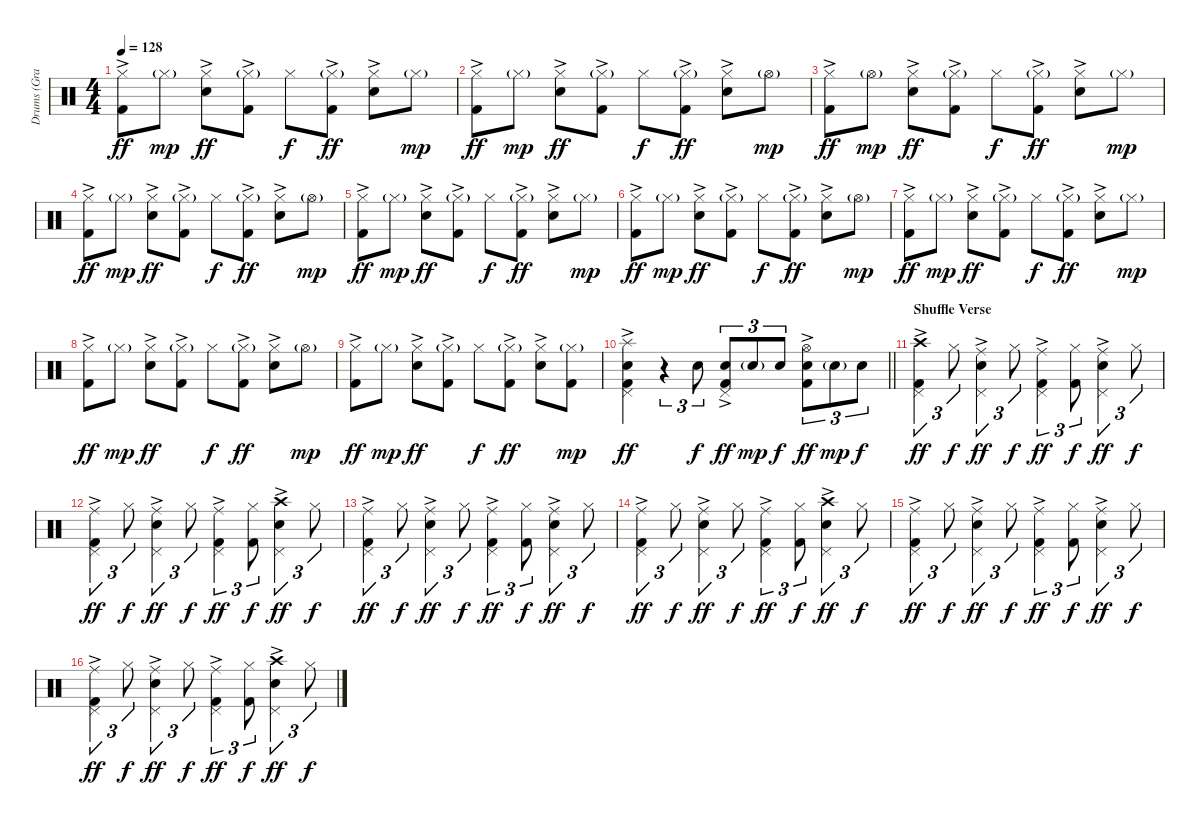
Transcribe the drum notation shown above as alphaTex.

\track ("Drums (Graham)" "Drums (Gra") {instrument percussion}
\staff {score}
\articulation defaults
\ts (4 4)
\tempo 128
\clef neutral
\ks c
("Hi-Hat (closed)" "Kick (hit) 2"{ac}).8{dy ff} "Hi-Hat (closed)"{g}.8{dy mp} ("Hi-Hat (closed)" "Snare (hit) 2"{ac}).8{dy ff} ("Hi-Hat (closed)"{g} "Kick (hit) 2"{ac}).8 "Hi-Hat (closed)".8{dy f} ("Hi-Hat (closed)"{g} "Kick (hit) 2"{ac}).8{dy ff} ("Hi-Hat (closed)" "Snare (hit) 2"{ac}).8 "Hi-Hat (closed)"{g}.8{dy mp} |
("Hi-Hat (closed)" "Kick (hit) 2"{ac}).8{dy ff} "Hi-Hat (closed)"{g}.8{dy mp} ("Hi-Hat (closed)" "Snare (hit) 2"{ac}).8{dy ff} ("Hi-Hat (closed)"{g} "Kick (hit) 2"{ac}).8 "Hi-Hat (closed)".8{dy f} ("Hi-Hat (closed)"{g} "Kick (hit) 2"{ac}).8{dy ff} ("Hi-Hat (closed)" "Snare (hit) 2"{ac}).8 "Hi-Hat (open)"{g}.8{dy mp} |
("Hi-Hat (closed)" "Kick (hit) 2"{ac}).8{dy ff} "Hi-Hat (open)"{g}.8{dy mp} ("Hi-Hat (closed)" "Snare (hit) 2"{ac}).8{dy ff} ("Hi-Hat (closed)"{g} "Kick (hit) 2"{ac}).8 "Hi-Hat (closed)".8{dy f} ("Hi-Hat (closed)"{g} "Kick (hit) 2"{ac}).8{dy ff} ("Hi-Hat (closed)" "Snare (hit) 2"{ac}).8 "Hi-Hat (closed)"{g}.8{dy mp} |
("Hi-Hat (closed)" "Kick (hit) 2"{ac}).8{dy ff} "Hi-Hat (closed)"{g}.8{dy mp} ("Hi-Hat (closed)" "Snare (hit) 2"{ac}).8{dy ff} ("Hi-Hat (closed)"{g} "Kick (hit) 2"{ac}).8 "Hi-Hat (closed)".8{dy f} ("Hi-Hat (closed)"{g} "Kick (hit) 2"{ac}).8{dy ff} ("Hi-Hat (closed)" "Snare (hit) 2"{ac}).8 "Hi-Hat (open)"{g}.8{dy mp} |
("Hi-Hat (closed)" "Kick (hit) 2"{ac}).8{dy ff} "Hi-Hat (closed)"{g}.8{dy mp} ("Hi-Hat (closed)" "Snare (hit) 2"{ac}).8{dy ff} ("Hi-Hat (closed)"{g} "Kick (hit) 2"{ac}).8 "Hi-Hat (closed)".8{dy f} ("Hi-Hat (closed)"{g} "Kick (hit) 2"{ac}).8{dy ff} ("Hi-Hat (closed)" "Snare (hit) 2"{ac}).8 "Hi-Hat (closed)"{g}.8{dy mp} |
("Hi-Hat (closed)" "Kick (hit) 2"{ac}).8{dy ff} "Hi-Hat (closed)"{g}.8{dy mp} ("Hi-Hat (closed)" "Snare (hit) 2"{ac}).8{dy ff} ("Hi-Hat (closed)"{g} "Kick (hit) 2"{ac}).8 "Hi-Hat (closed)".8{dy f} ("Hi-Hat (closed)"{g} "Kick (hit) 2"{ac}).8{dy ff} ("Hi-Hat (closed)" "Snare (hit) 2"{ac}).8 "Hi-Hat (open)"{g}.8{dy mp} |
("Hi-Hat (closed)" "Kick (hit) 2"{ac}).8{dy ff} "Hi-Hat (closed)"{g}.8{dy mp} ("Hi-Hat (closed)" "Snare (hit) 2"{ac}).8{dy ff} ("Hi-Hat (closed)"{g} "Kick (hit) 2"{ac}).8 "Hi-Hat (closed)".8{dy f} ("Hi-Hat (closed)"{g} "Kick (hit) 2"{ac}).8{dy ff} ("Hi-Hat (closed)" "Snare (hit) 2"{ac}).8 "Hi-Hat (closed)"{g}.8{dy mp} |
("Hi-Hat (closed)" "Kick (hit) 2"{ac}).8{dy ff} "Hi-Hat (closed)"{g}.8{dy mp} ("Hi-Hat (closed)" "Snare (hit) 2"{ac}).8{dy ff} ("Hi-Hat (closed)"{g} "Kick (hit) 2"{ac}).8 "Hi-Hat (closed)".8{dy f} ("Hi-Hat (closed)"{g} "Kick (hit) 2"{ac}).8{dy ff} ("Hi-Hat (closed)" "Snare (hit) 2"{ac}).8 "Hi-Hat (open)"{g}.8{dy mp} |
("Hi-Hat (closed)" "Kick (hit) 2"{ac}).8{dy ff} "Hi-Hat (closed)"{g}.8{dy mp} ("Hi-Hat (closed)" "Snare (hit) 2"{ac}).8{dy ff} ("Hi-Hat (closed)"{g} "Kick (hit) 2"{ac}).8 "Hi-Hat (closed)".8{dy f} ("Hi-Hat (closed)"{g} "Kick (hit) 2"{ac}).8{dy ff} ("Hi-Hat (closed)" "Snare (hit) 2"{ac}).8 ("Hi-Hat (closed)"{g} "Kick (hit) 2").8{dy mp} |
\barLineRight lightlight
("Pedal Hi-Hat (hit)" "Snare (hit) 2" "Splash (hit)" "Kick (hit) 2"{ac}).4{dy ff} r.4{tu (3 2)} "Snare (hit) 2".8{tu (3 2) dy f} ("Pedal Hi-Hat (hit)" "Snare (hit) 2"{ac} "Kick (hit) 2").8{tu (3 2) dy ff} "Snare (hit) 2"{g}.8{tu (3 2) dy mp} "Snare (hit) 2".8{tu (3 2) dy f} ("Hi-Hat (open)" "Snare (hit) 2"{ac} "Kick (hit) 2").8{tu (3 2) dy ff} "Snare (hit) 2"{g}.8{tu (3 2) dy mp} "Snare (hit) 2".8{tu (3 2) dy f} |
\section ("" "Shuffle Verse")
("Pedal Hi-Hat (hit)" "Crash high (hit)" "Kick (hit) 2"{ac}).4{tu (3 2) dy ff} "Hi-Hat (closed)".8{tu (3 2) dy f} ("Pedal Hi-Hat (hit)" "Ride (middle)" "Snare (hit) 2"{ac}).4{tu (3 2) dy ff} "Hi-Hat (closed)".8{tu (3 2) dy f} ("Pedal Hi-Hat (hit)" "Ride (middle)" "Kick (hit) 2"{ac}).4{tu (3 2) dy ff} ("Hi-Hat (closed)" "Kick (hit) 2").8{tu (3 2) dy f} ("Pedal Hi-Hat (hit)" "Ride (middle)" "Snare (hit) 2"{ac}).4{tu (3 2) dy ff} "Hi-Hat (closed)".8{tu (3 2) dy f} |
("Pedal Hi-Hat (hit)" "Ride (middle)" "Kick (hit) 2"{ac}).4{tu (3 2) dy ff} "Hi-Hat (closed)".8{tu (3 2) dy f} ("Pedal Hi-Hat (hit)" "Ride (middle)" "Snare (hit) 2"{ac}).4{tu (3 2) dy ff} "Hi-Hat (closed)".8{tu (3 2) dy f} ("Pedal Hi-Hat (hit)" "Ride (middle)" "Kick (hit) 2"{ac}).4{tu (3 2) dy ff} ("Hi-Hat (closed)" "Kick (hit) 2").8{tu (3 2) dy f} ("Pedal Hi-Hat (hit)" "Crash high (hit)" "Snare (hit) 2"{ac}).4{tu (3 2) dy ff} "Hi-Hat (closed)".8{tu (3 2) dy f} |
("Pedal Hi-Hat (hit)" "Ride (middle)" "Kick (hit) 2"{ac}).4{tu (3 2) dy ff} "Hi-Hat (closed)".8{tu (3 2) dy f} ("Pedal Hi-Hat (hit)" "Ride (middle)" "Snare (hit) 2"{ac}).4{tu (3 2) dy ff} "Hi-Hat (closed)".8{tu (3 2) dy f} ("Pedal Hi-Hat (hit)" "Ride (middle)" "Kick (hit) 2"{ac}).4{tu (3 2) dy ff} ("Hi-Hat (closed)" "Kick (hit) 2").8{tu (3 2) dy f} ("Pedal Hi-Hat (hit)" "Ride (middle)" "Snare (hit) 2"{ac}).4{tu (3 2) dy ff} "Hi-Hat (closed)".8{tu (3 2) dy f} |
("Pedal Hi-Hat (hit)" "Ride (middle)" "Kick (hit) 2"{ac}).4{tu (3 2) dy ff} "Hi-Hat (closed)".8{tu (3 2) dy f} ("Pedal Hi-Hat (hit)" "Ride (middle)" "Snare (hit) 2"{ac}).4{tu (3 2) dy ff} "Hi-Hat (closed)".8{tu (3 2) dy f} ("Pedal Hi-Hat (hit)" "Ride (middle)" "Kick (hit) 2"{ac}).4{tu (3 2) dy ff} ("Hi-Hat (closed)" "Kick (hit) 2").8{tu (3 2) dy f} ("Pedal Hi-Hat (hit)" "Crash high (hit)" "Snare (hit) 2"{ac}).4{tu (3 2) dy ff} "Hi-Hat (closed)".8{tu (3 2) dy f} |
("Pedal Hi-Hat (hit)" "Ride (middle)" "Kick (hit) 2"{ac}).4{tu (3 2) dy ff} "Hi-Hat (closed)".8{tu (3 2) dy f} ("Pedal Hi-Hat (hit)" "Ride (middle)" "Snare (hit) 2"{ac}).4{tu (3 2) dy ff} "Hi-Hat (closed)".8{tu (3 2) dy f} ("Pedal Hi-Hat (hit)" "Ride (middle)" "Kick (hit) 2"{ac}).4{tu (3 2) dy ff} ("Hi-Hat (closed)" "Kick (hit) 2").8{tu (3 2) dy f} ("Pedal Hi-Hat (hit)" "Ride (middle)" "Snare (hit) 2"{ac}).4{tu (3 2) dy ff} "Hi-Hat (closed)".8{tu (3 2) dy f} |
("Pedal Hi-Hat (hit)" "Ride (middle)" "Kick (hit) 2"{ac}).4{tu (3 2) dy ff} "Hi-Hat (closed)".8{tu (3 2) dy f} ("Pedal Hi-Hat (hit)" "Ride (middle)" "Snare (hit) 2"{ac}).4{tu (3 2) dy ff} "Hi-Hat (closed)".8{tu (3 2) dy f} ("Pedal Hi-Hat (hit)" "Ride (middle)" "Kick (hit) 2"{ac}).4{tu (3 2) dy ff} ("Hi-Hat (closed)" "Kick (hit) 2").8{tu (3 2) dy f} ("Pedal Hi-Hat (hit)" "Crash high (hit)" "Snare (hit) 2"{ac}).4{tu (3 2) dy ff} "Hi-Hat (closed)".8{tu (3 2) dy f}
